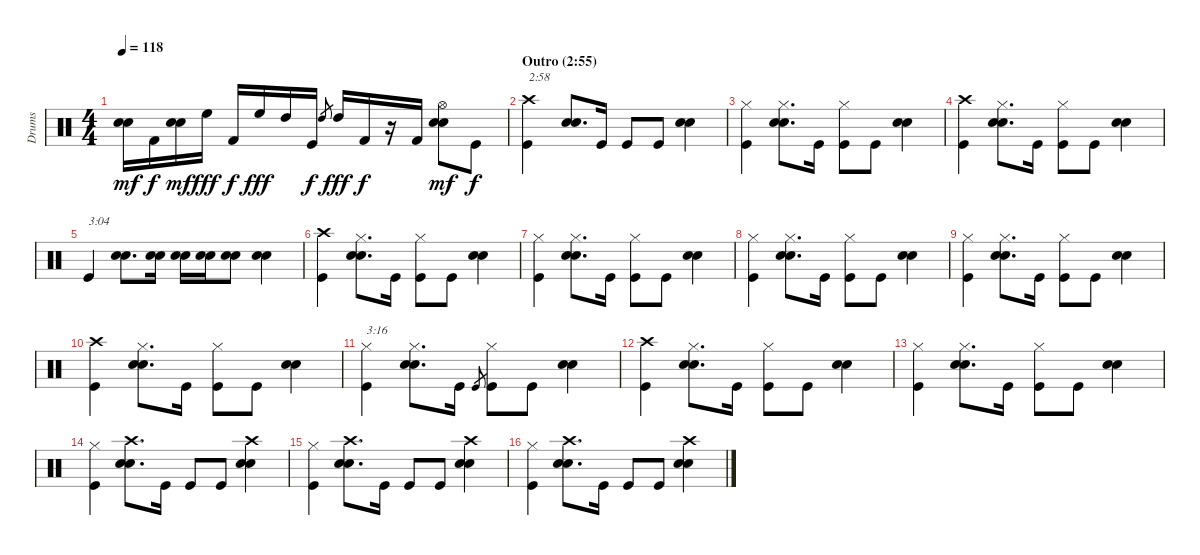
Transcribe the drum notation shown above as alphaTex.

\track ("Drums" "Drums") {instrument percussion}
\staff {score}
\articulation defaults
\ts (4 4)
\tempo 118
\clef neutral
\ks c
("Electric Snare (hit)" "Snare (hit) 2").16{dy mf} "Kick (hit) 2".16{dy f} ("Electric Snare (hit)" "Snare (hit) 2").16{dy mf} "High Floor Tom (hit)".16{dy fff} "Kick (hit) 2".16{dy f} "High Floor Tom (hit)".16{dy fff} "High Tom (hit)".16 "Kick (hit)".16{dy f} "High Tom (hit)".8{gr} "High Tom (hit)".16{dy fff} "Kick (hit) 2".16{dy f} r.16 "Kick (hit) 2".16 ("Hi-Hat (open)" "Electric Snare (hit)" "Snare (hit) 2").8{dy mf} "Kick (hit)".8{dy f} |
\section ("" "Outro (2:55)")
("Crash high (hit)" "Kick (hit)").4{txt "2:58"} ("Electric Snare (hit)" "Snare (hit) 2").8{d} "Kick (hit)".16 "Kick (hit)".8 "Kick (hit)".8 ("Electric Snare (hit)" "Snare (hit) 2").4 |
("Hi-Hat (closed)" "Kick (hit)").4 ("Hi-Hat (closed)" "Electric Snare (hit)" "Snare (hit) 2").8{d} "Kick (hit)".16 ("Hi-Hat (closed)" "Kick (hit)").8 "Kick (hit)".8 ("Electric Snare (hit)" "Snare (hit) 2").4 |
("Crash high (hit)" "Kick (hit)").4 ("Hi-Hat (closed)" "Electric Snare (hit)" "Snare (hit) 2").8{d} "Kick (hit)".16 ("Hi-Hat (closed)" "Kick (hit)").8 "Kick (hit)".8 ("Electric Snare (hit)" "Snare (hit) 2").4 |
"Kick (hit)".4{txt "3:04"} ("Electric Snare (hit)" "Snare (hit) 2").8{d} ("Electric Snare (hit)" "Snare (hit) 2").16 ("Electric Snare (hit)" "Snare (hit) 2").16 ("Electric Snare (hit)" "Snare (hit) 2").16 ("Electric Snare (hit)" "Snare (hit) 2").8 ("Electric Snare (hit)" "Snare (hit) 2").4 |
("Crash high (hit)" "Kick (hit)").4 ("Hi-Hat (closed)" "Electric Snare (hit)" "Snare (hit) 2").8{d} "Kick (hit)".16 ("Hi-Hat (closed)" "Kick (hit)").8 "Kick (hit)".8 ("Electric Snare (hit)" "Snare (hit) 2").4 |
("Hi-Hat (closed)" "Kick (hit)").4 ("Hi-Hat (closed)" "Electric Snare (hit)" "Snare (hit) 2").8{d} "Kick (hit)".16 ("Hi-Hat (closed)" "Kick (hit)").8 "Kick (hit)".8 ("Electric Snare (hit)" "Snare (hit) 2").4 |
("Hi-Hat (closed)" "Kick (hit)").4 ("Hi-Hat (closed)" "Electric Snare (hit)" "Snare (hit) 2").8{d} "Kick (hit)".16 ("Hi-Hat (closed)" "Kick (hit)").8 "Kick (hit)".8 ("Electric Snare (hit)" "Snare (hit) 2").4 |
("Hi-Hat (closed)" "Kick (hit)").4 ("Hi-Hat (closed)" "Electric Snare (hit)" "Snare (hit) 2").8{d} "Kick (hit)".16 ("Hi-Hat (closed)" "Kick (hit)").8 "Kick (hit)".8 ("Electric Snare (hit)" "Snare (hit) 2").4 |
("Crash high (hit)" "Kick (hit)").4 ("Hi-Hat (closed)" "Electric Snare (hit)" "Snare (hit) 2").8{d} "Kick (hit)".16 ("Hi-Hat (closed)" "Kick (hit)").8 "Kick (hit)".8 ("Electric Snare (hit)" "Snare (hit) 2").4 |
("Hi-Hat (closed)" "Kick (hit)").4{txt "3:16"} ("Hi-Hat (closed)" "Electric Snare (hit)" "Snare (hit) 2").8{d} "Kick (hit)".16 "Kick (hit)".8{gr} ("Hi-Hat (closed)" "Kick (hit)").8 "Kick (hit)".8 ("Electric Snare (hit)" "Snare (hit) 2").4 |
("Crash high (hit)" "Kick (hit)").4 ("Hi-Hat (closed)" "Electric Snare (hit)" "Snare (hit) 2").8{d} "Kick (hit)".16 ("Hi-Hat (closed)" "Kick (hit)").8 "Kick (hit)".8 ("Electric Snare (hit)" "Snare (hit) 2").4 |
("Hi-Hat (closed)" "Kick (hit)").4 ("Hi-Hat (closed)" "Electric Snare (hit)" "Snare (hit) 2").8{d} "Kick (hit)".16 ("Hi-Hat (closed)" "Kick (hit)").8 "Kick (hit)".8 ("Electric Snare (hit)" "Snare (hit) 2").4 |
("Hi-Hat (closed)" "Kick (hit)").4 ("Crash high (hit)" "Electric Snare (hit)" "Snare (hit) 2").8{d} "Kick (hit)".16 "Kick (hit)".8 "Kick (hit)".8 ("Crash high (hit)" "Electric Snare (hit)" "Snare (hit) 2").4 |
("Hi-Hat (closed)" "Kick (hit)").4 ("Crash high (hit)" "Electric Snare (hit)" "Snare (hit) 2").8{d} "Kick (hit)".16 "Kick (hit)".8 "Kick (hit)".8 ("Crash high (hit)" "Electric Snare (hit)" "Snare (hit) 2").4 |
("Hi-Hat (closed)" "Kick (hit)").4 ("Crash high (hit)" "Electric Snare (hit)" "Snare (hit) 2").8{d} "Kick (hit)".16 "Kick (hit)".8 "Kick (hit)".8 ("Crash high (hit)" "Electric Snare (hit)" "Snare (hit) 2").4
